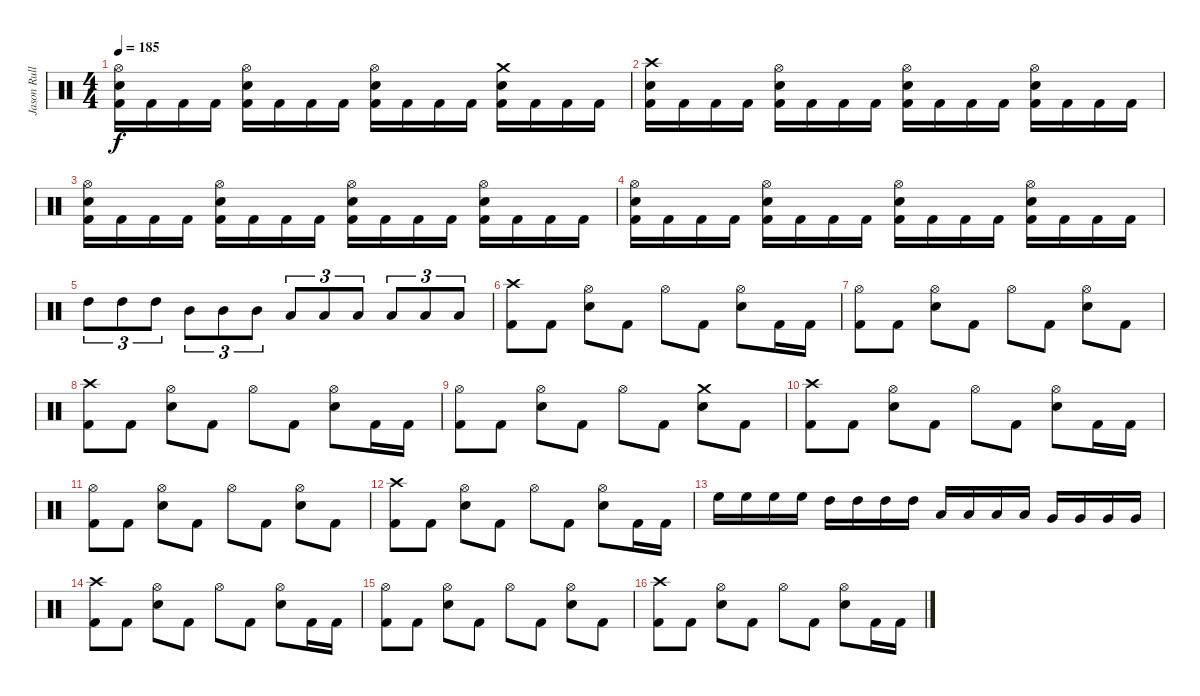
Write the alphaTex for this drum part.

\track ("Jason Rullo" "Jason Rull") {instrument percussion}
\staff {score}
\articulation defaults
\ts (4 4)
\tempo 185
\clef neutral
\ks c
("Hi-Hat (open)" "Snare (hit) 2" "Kick (hit) 2").16{dy f} "Kick (hit) 2".16 "Kick (hit) 2".16 "Kick (hit) 2".16 ("Hi-Hat (open)" "Snare (hit) 2" "Kick (hit) 2").16 "Kick (hit) 2".16 "Kick (hit) 2".16 "Kick (hit) 2".16 ("Hi-Hat (open)" "Snare (hit) 2" "Kick (hit) 2").16 "Kick (hit) 2".16 "Kick (hit) 2".16 "Kick (hit) 2".16 ("Crash medium (hit)" "Snare (hit) 2" "Kick (hit) 2").16 "Kick (hit) 2".16 "Kick (hit) 2".16 "Kick (hit) 2".16 |
("Crash high (hit)" "Snare (hit) 2" "Kick (hit) 2").16 "Kick (hit) 2".16 "Kick (hit) 2".16 "Kick (hit) 2".16 ("Hi-Hat (open)" "Snare (hit) 2" "Kick (hit) 2").16 "Kick (hit) 2".16 "Kick (hit) 2".16 "Kick (hit) 2".16 ("Hi-Hat (open)" "Snare (hit) 2" "Kick (hit) 2").16 "Kick (hit) 2".16 "Kick (hit) 2".16 "Kick (hit) 2".16 ("Hi-Hat (open)" "Snare (hit) 2" "Kick (hit) 2").16 "Kick (hit) 2".16 "Kick (hit) 2".16 "Kick (hit) 2".16 |
("Hi-Hat (open)" "Snare (hit) 2" "Kick (hit) 2").16 "Kick (hit) 2".16 "Kick (hit) 2".16 "Kick (hit) 2".16 ("Hi-Hat (open)" "Snare (hit) 2" "Kick (hit) 2").16 "Kick (hit) 2".16 "Kick (hit) 2".16 "Kick (hit) 2".16 ("Hi-Hat (open)" "Snare (hit) 2" "Kick (hit) 2").16 "Kick (hit) 2".16 "Kick (hit) 2".16 "Kick (hit) 2".16 ("Hi-Hat (open)" "Snare (hit) 2" "Kick (hit) 2").16 "Kick (hit) 2".16 "Kick (hit) 2".16 "Kick (hit) 2".16 |
("Hi-Hat (open)" "Snare (hit) 2" "Kick (hit) 2").16 "Kick (hit) 2".16 "Kick (hit) 2".16 "Kick (hit) 2".16 ("Hi-Hat (open)" "Snare (hit) 2" "Kick (hit) 2").16 "Kick (hit) 2".16 "Kick (hit) 2".16 "Kick (hit) 2".16 ("Hi-Hat (open)" "Snare (hit) 2" "Kick (hit) 2").16 "Kick (hit) 2".16 "Kick (hit) 2".16 "Kick (hit) 2".16 ("Hi-Hat (open)" "Snare (hit) 2" "Kick (hit) 2").16 "Kick (hit) 2".16 "Kick (hit) 2".16 "Kick (hit) 2".16 |
"High Tom (hit)".8{tu (3 2)} "High Tom (hit)".8{tu (3 2)} "High Tom (hit)".8{tu (3 2)} "Mid Tom (hit)".8{tu (3 2)} "Mid Tom (hit)".8{tu (3 2)} "Mid Tom (hit)".8{tu (3 2)} "Low Tom (hit)".8{tu (3 2)} "Low Tom (hit)".8{tu (3 2)} "Low Tom (hit)".8{tu (3 2)} "Low Floor Tom (hit)".8{tu (3 2)} "Low Floor Tom (hit)".8{tu (3 2)} "Low Floor Tom (hit)".8{tu (3 2)} |
("Crash high (hit)" "Kick (hit) 2").8 "Kick (hit) 2".8 ("Hi-Hat (open)" "Snare (hit) 2").8 "Kick (hit) 2".8 "Hi-Hat (open)".8 "Kick (hit) 2".8 ("Hi-Hat (open)" "Snare (hit) 2").8 "Kick (hit) 2".16 "Kick (hit) 2".16 |
("Hi-Hat (open)" "Kick (hit) 2").8 "Kick (hit) 2".8 ("Hi-Hat (open)" "Snare (hit) 2").8 "Kick (hit) 2".8 "Hi-Hat (open)".8 "Kick (hit) 2".8 ("Hi-Hat (open)" "Snare (hit) 2").8 "Kick (hit) 2".8 |
("Crash high (hit)" "Kick (hit) 2").8 "Kick (hit) 2".8 ("Hi-Hat (open)" "Snare (hit) 2").8 "Kick (hit) 2".8 "Hi-Hat (open)".8 "Kick (hit) 2".8 ("Hi-Hat (open)" "Snare (hit) 2").8 "Kick (hit) 2".16 "Kick (hit) 2".16 |
("Hi-Hat (open)" "Kick (hit) 2").8 "Kick (hit) 2".8 ("Hi-Hat (open)" "Snare (hit) 2").8 "Kick (hit) 2".8 "Hi-Hat (open)".8 "Kick (hit) 2".8 ("Crash medium (hit)" "Snare (hit) 2").8 "Kick (hit) 2".8 |
("Crash high (hit)" "Kick (hit) 2").8 "Kick (hit) 2".8 ("Hi-Hat (open)" "Snare (hit) 2").8 "Kick (hit) 2".8 "Hi-Hat (open)".8 "Kick (hit) 2".8 ("Hi-Hat (open)" "Snare (hit) 2").8 "Kick (hit) 2".16 "Kick (hit) 2".16 |
("Hi-Hat (open)" "Kick (hit) 2").8 "Kick (hit) 2".8 ("Hi-Hat (open)" "Snare (hit) 2").8 "Kick (hit) 2".8 "Hi-Hat (open)".8 "Kick (hit) 2".8 ("Hi-Hat (open)" "Snare (hit) 2").8 "Kick (hit) 2".8 |
("Crash high (hit)" "Kick (hit) 2").8 "Kick (hit) 2".8 ("Hi-Hat (open)" "Snare (hit) 2").8 "Kick (hit) 2".8 "Hi-Hat (open)".8 "Kick (hit) 2".8 ("Hi-Hat (open)" "Snare (hit) 2").8 "Kick (hit) 2".16 "Kick (hit) 2".16 |
"High Floor Tom (hit)".16 "High Floor Tom (hit)".16 "High Floor Tom (hit)".16 "High Floor Tom (hit)".16 "High Tom (hit)".16 "High Tom (hit)".16 "High Tom (hit)".16 "High Tom (hit)".16 "Low Tom (hit)".16 "Low Tom (hit)".16 "Low Tom (hit)".16 "Low Tom (hit)".16 "Very Low Tom (hit)".16 "Very Low Tom (hit)".16 "Very Low Tom (hit)".16 "Very Low Tom (hit)".16 |
("Crash high (hit)" "Kick (hit) 2").8 "Kick (hit) 2".8 ("Hi-Hat (open)" "Snare (hit) 2").8 "Kick (hit) 2".8 "Hi-Hat (open)".8 "Kick (hit) 2".8 ("Hi-Hat (open)" "Snare (hit) 2").8 "Kick (hit) 2".16 "Kick (hit) 2".16 |
("Hi-Hat (open)" "Kick (hit) 2").8 "Kick (hit) 2".8 ("Hi-Hat (open)" "Snare (hit) 2").8 "Kick (hit) 2".8 "Hi-Hat (open)".8 "Kick (hit) 2".8 ("Hi-Hat (open)" "Snare (hit) 2").8 "Kick (hit) 2".8 |
("Crash high (hit)" "Kick (hit) 2").8 "Kick (hit) 2".8 ("Hi-Hat (open)" "Snare (hit) 2").8 "Kick (hit) 2".8 "Hi-Hat (open)".8 "Kick (hit) 2".8 ("Hi-Hat (open)" "Snare (hit) 2").8 "Kick (hit) 2".16 "Kick (hit) 2".16
